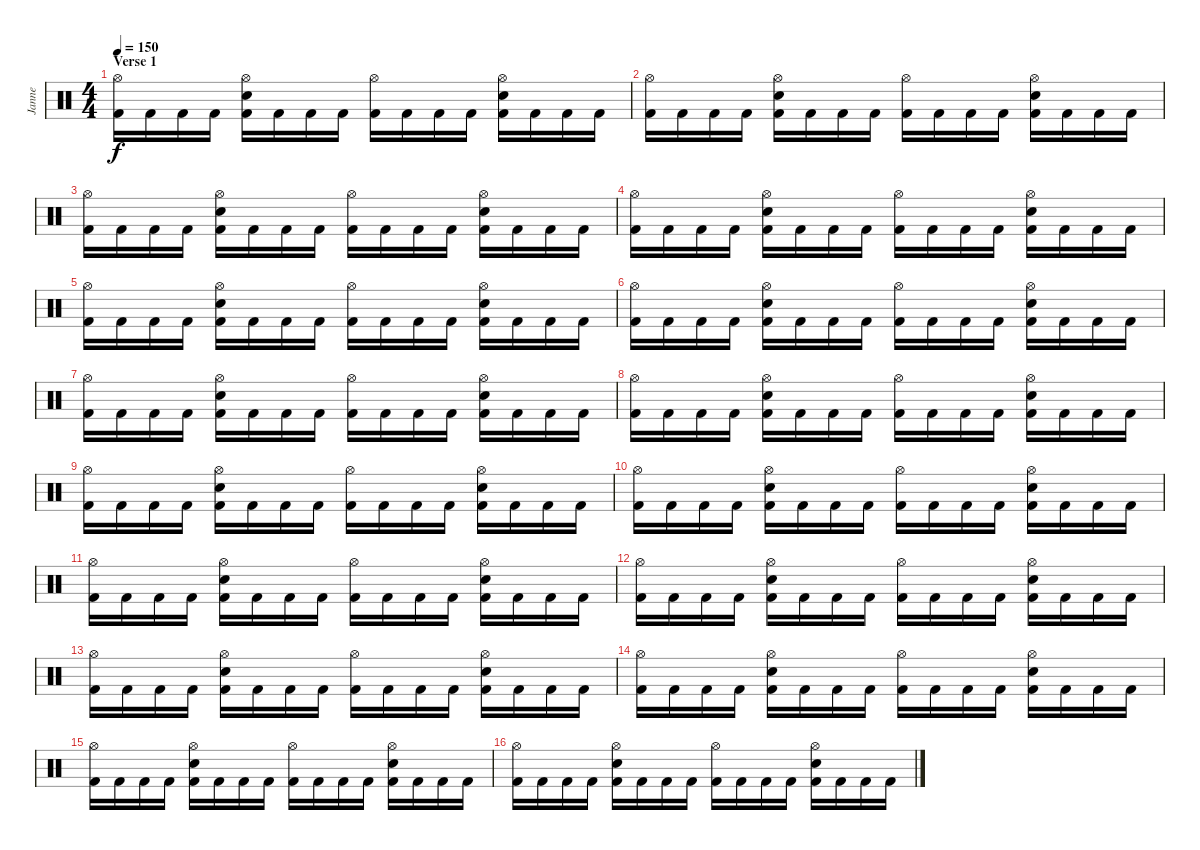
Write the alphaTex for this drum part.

\track ("Janne" "Janne") {instrument percussion}
\staff {score}
\articulation defaults
\ts (4 4)
\section ("" "Verse 1")
\tempo 150
\clef neutral
\ks c
("Hi-Hat (open)" "Kick (hit) 2").16{dy f} "Kick (hit) 2".16 "Kick (hit) 2".16 "Kick (hit) 2".16 ("Hi-Hat (open)" "Electric Snare (hit)" "Kick (hit) 2").16 "Kick (hit) 2".16 "Kick (hit) 2".16 "Kick (hit) 2".16 ("Hi-Hat (open)" "Kick (hit) 2").16 "Kick (hit) 2".16 "Kick (hit) 2".16 "Kick (hit) 2".16 ("Hi-Hat (open)" "Electric Snare (hit)" "Kick (hit) 2").16 "Kick (hit) 2".16 "Kick (hit) 2".16 "Kick (hit) 2".16 |
("Hi-Hat (open)" "Kick (hit) 2").16 "Kick (hit) 2".16 "Kick (hit) 2".16 "Kick (hit) 2".16 ("Hi-Hat (open)" "Electric Snare (hit)" "Kick (hit) 2").16 "Kick (hit) 2".16 "Kick (hit) 2".16 "Kick (hit) 2".16 ("Hi-Hat (open)" "Kick (hit) 2").16 "Kick (hit) 2".16 "Kick (hit) 2".16 "Kick (hit) 2".16 ("Hi-Hat (open)" "Electric Snare (hit)" "Kick (hit) 2").16 "Kick (hit) 2".16 "Kick (hit) 2".16 "Kick (hit) 2".16 |
("Hi-Hat (open)" "Kick (hit) 2").16 "Kick (hit) 2".16 "Kick (hit) 2".16 "Kick (hit) 2".16 ("Hi-Hat (open)" "Electric Snare (hit)" "Kick (hit) 2").16 "Kick (hit) 2".16 "Kick (hit) 2".16 "Kick (hit) 2".16 ("Hi-Hat (open)" "Kick (hit) 2").16 "Kick (hit) 2".16 "Kick (hit) 2".16 "Kick (hit) 2".16 ("Hi-Hat (open)" "Electric Snare (hit)" "Kick (hit) 2").16 "Kick (hit) 2".16 "Kick (hit) 2".16 "Kick (hit) 2".16 |
("Hi-Hat (open)" "Kick (hit) 2").16 "Kick (hit) 2".16 "Kick (hit) 2".16 "Kick (hit) 2".16 ("Hi-Hat (open)" "Electric Snare (hit)" "Kick (hit) 2").16 "Kick (hit) 2".16 "Kick (hit) 2".16 "Kick (hit) 2".16 ("Hi-Hat (open)" "Kick (hit) 2").16 "Kick (hit) 2".16 "Kick (hit) 2".16 "Kick (hit) 2".16 ("Hi-Hat (open)" "Electric Snare (hit)" "Kick (hit) 2").16 "Kick (hit) 2".16 "Kick (hit) 2".16 "Kick (hit) 2".16 |
("Hi-Hat (open)" "Kick (hit) 2").16 "Kick (hit) 2".16 "Kick (hit) 2".16 "Kick (hit) 2".16 ("Hi-Hat (open)" "Electric Snare (hit)" "Kick (hit) 2").16 "Kick (hit) 2".16 "Kick (hit) 2".16 "Kick (hit) 2".16 ("Hi-Hat (open)" "Kick (hit) 2").16 "Kick (hit) 2".16 "Kick (hit) 2".16 "Kick (hit) 2".16 ("Hi-Hat (open)" "Electric Snare (hit)" "Kick (hit) 2").16 "Kick (hit) 2".16 "Kick (hit) 2".16 "Kick (hit) 2".16 |
("Hi-Hat (open)" "Kick (hit) 2").16 "Kick (hit) 2".16 "Kick (hit) 2".16 "Kick (hit) 2".16 ("Hi-Hat (open)" "Electric Snare (hit)" "Kick (hit) 2").16 "Kick (hit) 2".16 "Kick (hit) 2".16 "Kick (hit) 2".16 ("Hi-Hat (open)" "Kick (hit) 2").16 "Kick (hit) 2".16 "Kick (hit) 2".16 "Kick (hit) 2".16 ("Hi-Hat (open)" "Electric Snare (hit)" "Kick (hit) 2").16 "Kick (hit) 2".16 "Kick (hit) 2".16 "Kick (hit) 2".16 |
("Hi-Hat (open)" "Kick (hit) 2").16 "Kick (hit) 2".16 "Kick (hit) 2".16 "Kick (hit) 2".16 ("Hi-Hat (open)" "Electric Snare (hit)" "Kick (hit) 2").16 "Kick (hit) 2".16 "Kick (hit) 2".16 "Kick (hit) 2".16 ("Hi-Hat (open)" "Kick (hit) 2").16 "Kick (hit) 2".16 "Kick (hit) 2".16 "Kick (hit) 2".16 ("Hi-Hat (open)" "Electric Snare (hit)" "Kick (hit) 2").16 "Kick (hit) 2".16 "Kick (hit) 2".16 "Kick (hit) 2".16 |
("Hi-Hat (open)" "Kick (hit) 2").16 "Kick (hit) 2".16 "Kick (hit) 2".16 "Kick (hit) 2".16 ("Hi-Hat (open)" "Electric Snare (hit)" "Kick (hit) 2").16 "Kick (hit) 2".16 "Kick (hit) 2".16 "Kick (hit) 2".16 ("Hi-Hat (open)" "Kick (hit) 2").16 "Kick (hit) 2".16 "Kick (hit) 2".16 "Kick (hit) 2".16 ("Hi-Hat (open)" "Electric Snare (hit)" "Kick (hit) 2").16 "Kick (hit) 2".16 "Kick (hit) 2".16 "Kick (hit) 2".16 |
("Hi-Hat (open)" "Kick (hit) 2").16 "Kick (hit) 2".16 "Kick (hit) 2".16 "Kick (hit) 2".16 ("Hi-Hat (open)" "Electric Snare (hit)" "Kick (hit) 2").16 "Kick (hit) 2".16 "Kick (hit) 2".16 "Kick (hit) 2".16 ("Hi-Hat (open)" "Kick (hit) 2").16 "Kick (hit) 2".16 "Kick (hit) 2".16 "Kick (hit) 2".16 ("Hi-Hat (open)" "Electric Snare (hit)" "Kick (hit) 2").16 "Kick (hit) 2".16 "Kick (hit) 2".16 "Kick (hit) 2".16 |
("Hi-Hat (open)" "Kick (hit) 2").16 "Kick (hit) 2".16 "Kick (hit) 2".16 "Kick (hit) 2".16 ("Hi-Hat (open)" "Electric Snare (hit)" "Kick (hit) 2").16 "Kick (hit) 2".16 "Kick (hit) 2".16 "Kick (hit) 2".16 ("Hi-Hat (open)" "Kick (hit) 2").16 "Kick (hit) 2".16 "Kick (hit) 2".16 "Kick (hit) 2".16 ("Hi-Hat (open)" "Electric Snare (hit)" "Kick (hit) 2").16 "Kick (hit) 2".16 "Kick (hit) 2".16 "Kick (hit) 2".16 |
("Hi-Hat (open)" "Kick (hit) 2").16 "Kick (hit) 2".16 "Kick (hit) 2".16 "Kick (hit) 2".16 ("Hi-Hat (open)" "Electric Snare (hit)" "Kick (hit) 2").16 "Kick (hit) 2".16 "Kick (hit) 2".16 "Kick (hit) 2".16 ("Hi-Hat (open)" "Kick (hit) 2").16 "Kick (hit) 2".16 "Kick (hit) 2".16 "Kick (hit) 2".16 ("Hi-Hat (open)" "Electric Snare (hit)" "Kick (hit) 2").16 "Kick (hit) 2".16 "Kick (hit) 2".16 "Kick (hit) 2".16 |
("Hi-Hat (open)" "Kick (hit) 2").16 "Kick (hit) 2".16 "Kick (hit) 2".16 "Kick (hit) 2".16 ("Hi-Hat (open)" "Electric Snare (hit)" "Kick (hit) 2").16 "Kick (hit) 2".16 "Kick (hit) 2".16 "Kick (hit) 2".16 ("Hi-Hat (open)" "Kick (hit) 2").16 "Kick (hit) 2".16 "Kick (hit) 2".16 "Kick (hit) 2".16 ("Hi-Hat (open)" "Electric Snare (hit)" "Kick (hit) 2").16 "Kick (hit) 2".16 "Kick (hit) 2".16 "Kick (hit) 2".16 |
("Hi-Hat (open)" "Kick (hit) 2").16 "Kick (hit) 2".16 "Kick (hit) 2".16 "Kick (hit) 2".16 ("Hi-Hat (open)" "Electric Snare (hit)" "Kick (hit) 2").16 "Kick (hit) 2".16 "Kick (hit) 2".16 "Kick (hit) 2".16 ("Hi-Hat (open)" "Kick (hit) 2").16 "Kick (hit) 2".16 "Kick (hit) 2".16 "Kick (hit) 2".16 ("Hi-Hat (open)" "Electric Snare (hit)" "Kick (hit) 2").16 "Kick (hit) 2".16 "Kick (hit) 2".16 "Kick (hit) 2".16 |
("Hi-Hat (open)" "Kick (hit) 2").16 "Kick (hit) 2".16 "Kick (hit) 2".16 "Kick (hit) 2".16 ("Hi-Hat (open)" "Electric Snare (hit)" "Kick (hit) 2").16 "Kick (hit) 2".16 "Kick (hit) 2".16 "Kick (hit) 2".16 ("Hi-Hat (open)" "Kick (hit) 2").16 "Kick (hit) 2".16 "Kick (hit) 2".16 "Kick (hit) 2".16 ("Hi-Hat (open)" "Electric Snare (hit)" "Kick (hit) 2").16 "Kick (hit) 2".16 "Kick (hit) 2".16 "Kick (hit) 2".16 |
("Hi-Hat (open)" "Kick (hit) 2").16 "Kick (hit) 2".16 "Kick (hit) 2".16 "Kick (hit) 2".16 ("Hi-Hat (open)" "Electric Snare (hit)" "Kick (hit) 2").16 "Kick (hit) 2".16 "Kick (hit) 2".16 "Kick (hit) 2".16 ("Hi-Hat (open)" "Kick (hit) 2").16 "Kick (hit) 2".16 "Kick (hit) 2".16 "Kick (hit) 2".16 ("Hi-Hat (open)" "Electric Snare (hit)" "Kick (hit) 2").16 "Kick (hit) 2".16 "Kick (hit) 2".16 "Kick (hit) 2".16 |
("Hi-Hat (open)" "Kick (hit) 2").16 "Kick (hit) 2".16 "Kick (hit) 2".16 "Kick (hit) 2".16 ("Hi-Hat (open)" "Electric Snare (hit)" "Kick (hit) 2").16 "Kick (hit) 2".16 "Kick (hit) 2".16 "Kick (hit) 2".16 ("Hi-Hat (open)" "Kick (hit) 2").16 "Kick (hit) 2".16 "Kick (hit) 2".16 "Kick (hit) 2".16 ("Hi-Hat (open)" "Electric Snare (hit)" "Kick (hit) 2").16 "Kick (hit) 2".16 "Kick (hit) 2".16 "Kick (hit) 2".16
